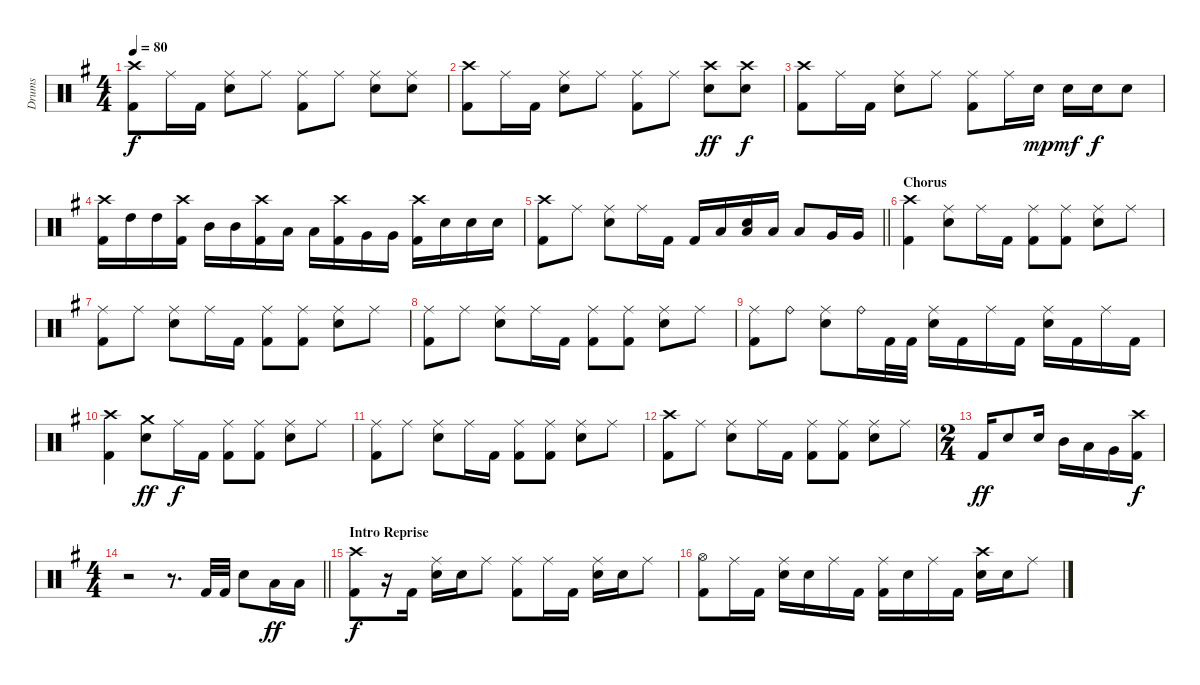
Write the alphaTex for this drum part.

\track ("Drums" "Drums") {instrument percussion}
\staff {score}
\articulation defaults
\ts (4 4)
\tempo 80
\clef neutral
\ks g
("Crash high (hit)" "Kick (hit) 2").8{dy f} "Ride (middle)".16 "Kick (hit) 2".16 ("Ride (middle)" "Electric Snare (hit)").8 "Ride (middle)".8 ("Ride (middle)" "Kick (hit) 2").8 "Ride (middle)".8 ("Ride (middle)" "Electric Snare (hit)").8 ("Ride (middle)" "Electric Snare (hit)").8 |
("Crash high (hit)" "Kick (hit) 2").8 "Ride (middle)".16 "Kick (hit) 2".16 ("Ride (middle)" "Electric Snare (hit)").8 "Ride (middle)".8 ("Ride (middle)" "Kick (hit) 2").8 "Ride (middle)".8 ("Crash high (hit)" "Electric Snare (hit)").8{dy ff} ("Crash high (hit)" "Electric Snare (hit)").8{dy f} |
("Crash high (hit)" "Kick (hit) 2").8 "Ride (middle)".16 "Kick (hit) 2".16 ("Ride (middle)" "Electric Snare (hit)").8 "Ride (middle)".8 ("Ride (middle)" "Kick (hit) 2").8 "Ride (middle)".16 "Electric Snare (hit)".16{dy mp} "Electric Snare (hit)".16{dy mf} "Electric Snare (hit)".16{dy f} "Electric Snare (hit)".8 |
("Crash high (hit)" "Kick (hit) 2").16 "High Tom (hit)".16 "High Tom (hit)".16 ("Crash high (hit)" "Kick (hit) 2").16 "Mid Tom (hit)".16 "Mid Tom (hit)".16 ("Crash high (hit)" "Kick (hit) 2").16 "Low Tom (hit)".16 "Low Tom (hit)".16 ("Crash high (hit)" "Kick (hit) 2").16 "Very Low Tom (hit)".16 "Very Low Tom (hit)".16 ("Crash high (hit)" "Kick (hit) 2").16 "Electric Snare (hit)".16 "Electric Snare (hit)".16 "Electric Snare (hit)".16 |
\barLineRight lightlight
("Crash high (hit)" "Kick (hit) 2").8 "Ride (middle)".8 ("Ride (middle)" "Electric Snare (hit)").8 "Ride (middle)".16 "Kick (hit) 2".16 "Kick (hit) 2".16 "Low Tom (hit)".16 ("Low Tom (hit)" "Electric Snare (hit)").16 "Low Tom (hit)".16 "Low Tom (hit)".8 "Very Low Tom (hit)".16 "Very Low Tom (hit)".16 |
\section ("" "Chorus")
("Crash high (hit)" "Kick (hit) 2").4 ("Ride (middle)" "Electric Snare (hit)").8 "Ride (middle)".16 "Kick (hit) 2".16 ("Ride (middle)" "Kick (hit) 2").8 ("Ride (middle)" "Kick (hit) 2").8 ("Ride (middle)" "Electric Snare (hit)").8 "Ride (middle)".8 |
("Ride (middle)" "Kick (hit) 2").8 "Ride (middle)".8 ("Ride (middle)" "Electric Snare (hit)").8 "Ride (middle)".16 "Kick (hit) 2".16 ("Ride (middle)" "Kick (hit) 2").8 ("Ride (middle)" "Kick (hit) 2").8 ("Ride (middle)" "Electric Snare (hit)").8 "Ride (middle)".8 |
("Ride (middle)" "Kick (hit) 2").8 "Ride (middle)".8 ("Ride (middle)" "Electric Snare (hit)").8 "Ride (middle)".16 "Kick (hit) 2".16 ("Ride (middle)" "Kick (hit) 2").8 ("Ride (middle)" "Kick (hit) 2").8 ("Ride (middle)" "Electric Snare (hit)").8 "Ride (middle)".8 |
("Ride (middle)" "Kick (hit) 2").8 "Ride (bell)".8 ("Ride (middle)" "Electric Snare (hit)").8 "Ride (bell)".16 "Kick (hit) 2".32 "Kick (hit) 2".32 ("Ride (middle)" "Electric Snare (hit)").16 "Kick (hit) 2".16 "Ride (middle)".16 "Kick (hit) 2".16 ("Ride (middle)" "Electric Snare (hit)").16 "Kick (hit) 2".16 "Ride (middle)".16 "Kick (hit) 2".16 |
("Crash high (hit)" "Kick (hit) 2").4 ("Crash medium (hit)" "Electric Snare (hit)").8{dy ff} "Ride (middle)".16{dy f} "Kick (hit) 2".16 ("Ride (middle)" "Kick (hit) 2").8 ("Ride (middle)" "Kick (hit) 2").8 ("Ride (middle)" "Electric Snare (hit)").8 "Ride (middle)".8 |
("Ride (middle)" "Kick (hit) 2").8 "Ride (middle)".8 ("Ride (middle)" "Electric Snare (hit)").8 "Ride (middle)".16 "Kick (hit) 2".16 ("Ride (middle)" "Kick (hit) 2").8 ("Ride (middle)" "Kick (hit) 2").8 ("Ride (middle)" "Electric Snare (hit)").8 "Ride (middle)".8 |
("Crash high (hit)" "Kick (hit) 2").8 "Ride (middle)".8 ("Ride (middle)" "Electric Snare (hit)").8 "Ride (middle)".16 "Kick (hit) 2".16 ("Ride (middle)" "Kick (hit) 2").8 ("Ride (middle)" "Kick (hit) 2").8 ("Ride (middle)" "Electric Snare (hit)").8 "Ride (middle)".8 |
\ts (2 4)
"Kick (hit) 2".16{dy ff} "Electric Snare (hit)".8 "Electric Snare (hit)".16 "Mid Tom (hit)".16 "Low Tom (hit)".16 "Very Low Tom (hit)".16 ("Crash high (hit)" "Kick (hit) 2").16{dy f} |
\ts (4 4)
\barLineRight lightlight
r.2 r.8{d} "Kick (hit) 2".32 "Kick (hit) 2".32 "Electric Snare (hit)".8 "Low Tom (hit)".16{dy ff} "Low Tom (hit)".16 |
\section ("" "Intro Reprise")
("Crash high (hit)" "Kick (hit) 2").8{dy f} r.16 "Kick (hit) 2".16 ("Ride (middle)" "Electric Snare (hit)").16 "Electric Snare (hit)".16 "Ride (middle)".8 ("Ride (middle)" "Kick (hit) 2").8 "Ride (middle)".16 "Kick (hit) 2".16 ("Ride (middle)" "Electric Snare (hit)").16 "Electric Snare (hit)".16 "Ride (middle)".8 |
("Hi-Hat (open)" "Kick (hit) 2").8 "Ride (middle)".16 "Kick (hit) 2".16 ("Ride (middle)" "Electric Snare (hit)").16 "Electric Snare (hit)".16 "Ride (middle)".16 "Kick (hit) 2".16 ("Ride (middle)" "Kick (hit) 2").16 "Electric Snare (hit)".16 "Ride (middle)".16 "Kick (hit) 2".16 ("Crash high (hit)" "Electric Snare (hit)").16 "Electric Snare (hit)".16 "Ride (middle)".8
